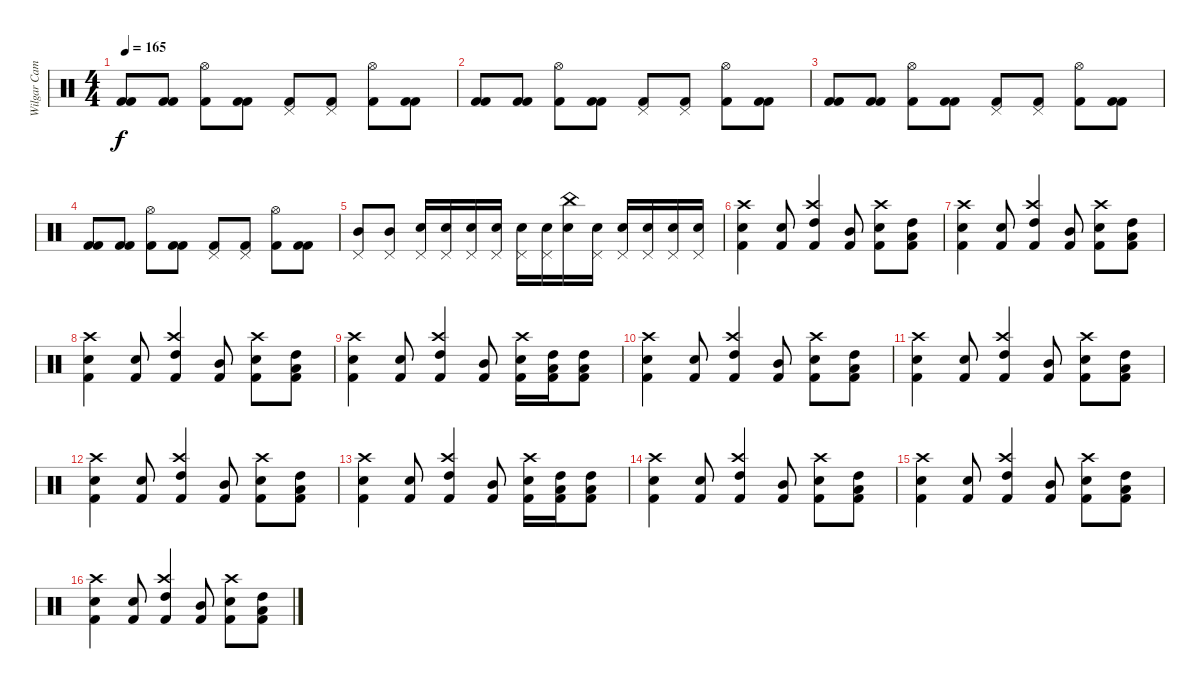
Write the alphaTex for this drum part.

\track ("Wilgar Campbell" "Wilgar Cam") {instrument percussion}
\staff {score}
\articulation defaults
\ts (4 4)
\tempo 165
\clef neutral
\ks c
("Kick (hit) 2" "Kick (hit) 2").8{dy f} ("Kick (hit) 2" "Kick (hit) 2").8 ("Hi-Hat (open)" "Kick (hit) 2").8 ("Kick (hit) 2" "Kick (hit) 2").8 ("Pedal Hi-Hat (hit)" "Kick (hit) 2").8 ("Pedal Hi-Hat (hit)" "Kick (hit) 2").8 ("Hi-Hat (open)" "Kick (hit) 2").8 ("Kick (hit) 2" "Kick (hit) 2").8 |
("Kick (hit) 2" "Kick (hit) 2").8 ("Kick (hit) 2" "Kick (hit) 2").8 ("Hi-Hat (open)" "Kick (hit) 2").8 ("Kick (hit) 2" "Kick (hit) 2").8 ("Pedal Hi-Hat (hit)" "Kick (hit) 2").8 ("Pedal Hi-Hat (hit)" "Kick (hit) 2").8 ("Hi-Hat (open)" "Kick (hit) 2").8 ("Kick (hit) 2" "Kick (hit) 2").8 |
("Kick (hit) 2" "Kick (hit) 2").8 ("Kick (hit) 2" "Kick (hit) 2").8 ("Hi-Hat (open)" "Kick (hit) 2").8 ("Kick (hit) 2" "Kick (hit) 2").8 ("Pedal Hi-Hat (hit)" "Kick (hit) 2").8 ("Pedal Hi-Hat (hit)" "Kick (hit) 2").8 ("Hi-Hat (open)" "Kick (hit) 2").8 ("Kick (hit) 2" "Kick (hit) 2").8 |
("Kick (hit) 2" "Kick (hit) 2").8 ("Kick (hit) 2" "Kick (hit) 2").8 ("Hi-Hat (open)" "Kick (hit) 2").8 ("Kick (hit) 2" "Kick (hit) 2").8 ("Pedal Hi-Hat (hit)" "Kick (hit) 2").8 ("Pedal Hi-Hat (hit)" "Kick (hit) 2").8 ("Hi-Hat (open)" "Kick (hit) 2").8 ("Kick (hit) 2" "Kick (hit) 2").8 |
("Pedal Hi-Hat (hit)" "Mid Tom (hit)").8 ("Pedal Hi-Hat (hit)" "Mid Tom (hit)").8 ("Pedal Hi-Hat (hit)" "Electric Snare (hit)").16 ("Pedal Hi-Hat (hit)" "Electric Snare (hit)").16 ("Pedal Hi-Hat (hit)" "Electric Snare (hit)").16 ("Pedal Hi-Hat (hit)" "Electric Snare (hit)").16 ("Pedal Hi-Hat (hit)" "Electric Snare (hit)").16 ("Pedal Hi-Hat (hit)" "Electric Snare (hit)").16 ("China (hit)" "Electric Snare (hit)").16 ("Pedal Hi-Hat (hit)" "Electric Snare (hit)").16 ("Pedal Hi-Hat (hit)" "Electric Snare (hit)").16 ("Pedal Hi-Hat (hit)" "Electric Snare (hit)").16 ("Pedal Hi-Hat (hit)" "Electric Snare (hit)").16 ("Pedal Hi-Hat (hit)" "Electric Snare (hit)").16 |
("Crash high (hit)" "Electric Snare (hit)" "Kick (hit) 2").4 ("Snare (hit) 2" "Kick (hit) 2").8 ("Crash high (hit)" "High Tom (hit)" "Kick (hit) 2").4 ("Mid Tom (hit)" "Kick (hit) 2").8 ("Crash high (hit)" "Electric Snare (hit)" "Kick (hit) 2").8 ("High Tom (hit)" "Kick (hit) 2" "Low Tom (hit)").8 |
("Crash high (hit)" "Electric Snare (hit)" "Kick (hit) 2").4 ("Snare (hit) 2" "Kick (hit) 2").8 ("Crash high (hit)" "High Tom (hit)" "Kick (hit) 2").4 ("Mid Tom (hit)" "Kick (hit) 2").8 ("Crash high (hit)" "Electric Snare (hit)" "Kick (hit) 2").8 ("High Tom (hit)" "Kick (hit) 2" "Low Tom (hit)").8 |
("Crash high (hit)" "Electric Snare (hit)" "Kick (hit) 2").4 ("Snare (hit) 2" "Kick (hit) 2").8 ("Crash high (hit)" "High Tom (hit)" "Kick (hit) 2").4 ("Mid Tom (hit)" "Kick (hit) 2").8 ("Crash high (hit)" "Electric Snare (hit)" "Kick (hit) 2").8 ("High Tom (hit)" "Kick (hit) 2" "Low Tom (hit)").8 |
("Crash high (hit)" "Electric Snare (hit)" "Kick (hit) 2").4 ("Snare (hit) 2" "Kick (hit) 2").8 ("Crash high (hit)" "High Tom (hit)" "Kick (hit) 2").4 ("Mid Tom (hit)" "Kick (hit) 2").8 ("Crash high (hit)" "Electric Snare (hit)" "Kick (hit) 2").16 ("High Tom (hit)" "Kick (hit) 2" "Low Tom (hit)").16 ("High Tom (hit)" "Kick (hit) 2" "Low Tom (hit)").8 |
("Crash high (hit)" "Electric Snare (hit)" "Kick (hit) 2").4 ("Snare (hit) 2" "Kick (hit) 2").8 ("Crash high (hit)" "High Tom (hit)" "Kick (hit) 2").4 ("Mid Tom (hit)" "Kick (hit) 2").8 ("Crash high (hit)" "Electric Snare (hit)" "Kick (hit) 2").8 ("High Tom (hit)" "Kick (hit) 2" "Low Tom (hit)").8 |
("Crash high (hit)" "Electric Snare (hit)" "Kick (hit) 2").4 ("Snare (hit) 2" "Kick (hit) 2").8 ("Crash high (hit)" "High Tom (hit)" "Kick (hit) 2").4 ("Mid Tom (hit)" "Kick (hit) 2").8 ("Crash high (hit)" "Electric Snare (hit)" "Kick (hit) 2").8 ("High Tom (hit)" "Kick (hit) 2" "Low Tom (hit)").8 |
("Crash high (hit)" "Electric Snare (hit)" "Kick (hit) 2").4 ("Snare (hit) 2" "Kick (hit) 2").8 ("Crash high (hit)" "High Tom (hit)" "Kick (hit) 2").4 ("Mid Tom (hit)" "Kick (hit) 2").8 ("Crash high (hit)" "Electric Snare (hit)" "Kick (hit) 2").8 ("High Tom (hit)" "Kick (hit) 2" "Low Tom (hit)").8 |
("Crash high (hit)" "Electric Snare (hit)" "Kick (hit) 2").4 ("Snare (hit) 2" "Kick (hit) 2").8 ("Crash high (hit)" "High Tom (hit)" "Kick (hit) 2").4 ("Mid Tom (hit)" "Kick (hit) 2").8 ("Crash high (hit)" "Electric Snare (hit)" "Kick (hit) 2").16 ("High Tom (hit)" "Kick (hit) 2" "Low Tom (hit)").16 ("High Tom (hit)" "Kick (hit) 2" "Low Tom (hit)").8 |
("Crash high (hit)" "Electric Snare (hit)" "Kick (hit) 2").4 ("Snare (hit) 2" "Kick (hit) 2").8 ("Crash high (hit)" "High Tom (hit)" "Kick (hit) 2").4 ("Mid Tom (hit)" "Kick (hit) 2").8 ("Crash high (hit)" "Electric Snare (hit)" "Kick (hit) 2").8 ("High Tom (hit)" "Kick (hit) 2" "Low Tom (hit)").8 |
("Crash high (hit)" "Electric Snare (hit)" "Kick (hit) 2").4 ("Snare (hit) 2" "Kick (hit) 2").8 ("Crash high (hit)" "High Tom (hit)" "Kick (hit) 2").4 ("Mid Tom (hit)" "Kick (hit) 2").8 ("Crash high (hit)" "Electric Snare (hit)" "Kick (hit) 2").8 ("High Tom (hit)" "Kick (hit) 2" "Low Tom (hit)").8 |
("Crash high (hit)" "Electric Snare (hit)" "Kick (hit) 2").4 ("Snare (hit) 2" "Kick (hit) 2").8 ("Crash high (hit)" "High Tom (hit)" "Kick (hit) 2").4 ("Mid Tom (hit)" "Kick (hit) 2").8 ("Crash high (hit)" "Electric Snare (hit)" "Kick (hit) 2").8 ("High Tom (hit)" "Kick (hit) 2" "Low Tom (hit)").8
